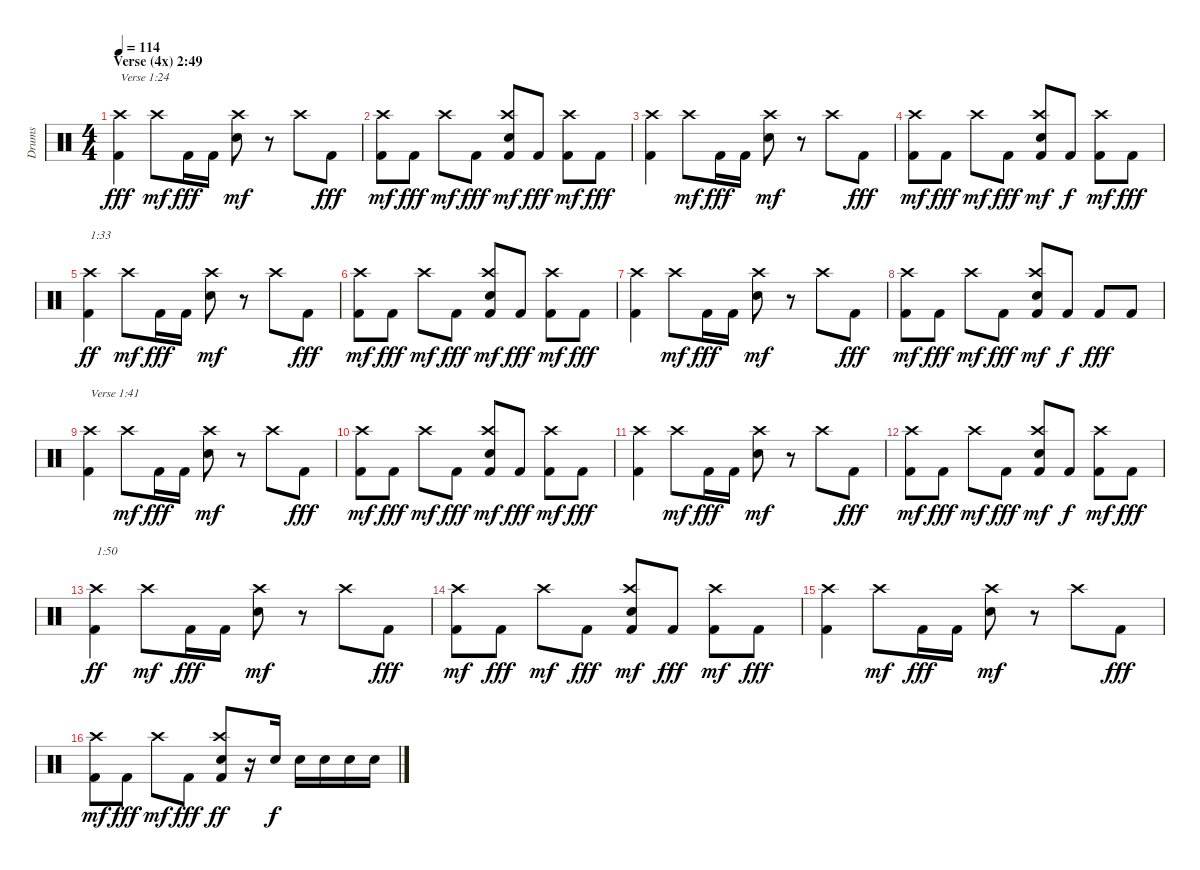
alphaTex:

\track ("Drums" "Drums") {instrument percussion}
\staff {score}
\articulation defaults
\ts (4 4)
\section ("" "Verse (4x) 2:49 ")
\tempo 114
\clef neutral
\ks c
("Kick (hit) 2" "Crash high (hit)").4{txt "Verse 1:24" dy fff} "Crash high (hit)".8{dy mf} "Kick (hit) 2".16{dy fff} "Kick (hit) 2".16 ("Electric Snare (hit)" "Crash high (hit)").8{dy mf} r.8 "Crash high (hit)".8 "Kick (hit) 2".8{dy fff} |
("Kick (hit) 2" "Crash high (hit)").8{dy mf} "Kick (hit) 2".8{dy fff} "Crash high (hit)".8{dy mf} "Kick (hit) 2".8{dy fff} ("Kick (hit) 2" "Electric Snare (hit)" "Crash high (hit)").8{dy mf} "Kick (hit) 2".8{dy fff} ("Kick (hit) 2" "Crash high (hit)").8{dy mf} "Kick (hit) 2".8{dy fff} |
("Kick (hit) 2" "Crash high (hit)").4 "Crash high (hit)".8{dy mf} "Kick (hit) 2".16{dy fff} "Kick (hit) 2".16 ("Electric Snare (hit)" "Crash high (hit)").8{dy mf} r.8 "Crash high (hit)".8 "Kick (hit) 2".8{dy fff} |
("Kick (hit) 2" "Crash high (hit)").8{dy mf} "Kick (hit) 2".8{dy fff} "Crash high (hit)".8{dy mf} "Kick (hit) 2".8{dy fff} ("Kick (hit) 2" "Electric Snare (hit)" "Crash high (hit)").8{dy mf} "Kick (hit) 2".8{dy f} ("Kick (hit) 2" "Crash high (hit)").8{dy mf} "Kick (hit) 2".8{dy fff} |
("Kick (hit) 2" "Crash high (hit)").4{txt "1:33" dy ff} "Crash high (hit)".8{dy mf} "Kick (hit) 2".16{dy fff} "Kick (hit) 2".16 ("Electric Snare (hit)" "Crash high (hit)").8{dy mf} r.8 "Crash high (hit)".8 "Kick (hit) 2".8{dy fff} |
("Kick (hit) 2" "Crash high (hit)").8{dy mf} "Kick (hit) 2".8{dy fff} "Crash high (hit)".8{dy mf} "Kick (hit) 2".8{dy fff} ("Kick (hit) 2" "Electric Snare (hit)" "Crash high (hit)").8{dy mf} "Kick (hit) 2".8{dy fff} ("Kick (hit) 2" "Crash high (hit)").8{dy mf} "Kick (hit) 2".8{dy fff} |
("Kick (hit) 2" "Crash high (hit)").4 "Crash high (hit)".8{dy mf} "Kick (hit) 2".16{dy fff} "Kick (hit) 2".16 ("Electric Snare (hit)" "Crash high (hit)").8{dy mf} r.8 "Crash high (hit)".8 "Kick (hit) 2".8{dy fff} |
("Kick (hit) 2" "Crash high (hit)").8{dy mf} "Kick (hit) 2".8{dy fff} "Crash high (hit)".8{dy mf} "Kick (hit) 2".8{dy fff} ("Kick (hit) 2" "Electric Snare (hit)" "Crash high (hit)").8{dy mf} "Kick (hit) 2".8{dy f} "Kick (hit) 2".8{dy fff} "Kick (hit) 2".8 |
("Kick (hit) 2" "Crash high (hit)").4{txt "Verse 1:41"} "Crash high (hit)".8{dy mf} "Kick (hit) 2".16{dy fff} "Kick (hit) 2".16 ("Electric Snare (hit)" "Crash high (hit)").8{dy mf} r.8 "Crash high (hit)".8 "Kick (hit) 2".8{dy fff} |
("Kick (hit) 2" "Crash high (hit)").8{dy mf} "Kick (hit) 2".8{dy fff} "Crash high (hit)".8{dy mf} "Kick (hit) 2".8{dy fff} ("Kick (hit) 2" "Electric Snare (hit)" "Crash high (hit)").8{dy mf} "Kick (hit) 2".8{dy fff} ("Kick (hit) 2" "Crash high (hit)").8{dy mf} "Kick (hit) 2".8{dy fff} |
("Kick (hit) 2" "Crash high (hit)").4 "Crash high (hit)".8{dy mf} "Kick (hit) 2".16{dy fff} "Kick (hit) 2".16 ("Electric Snare (hit)" "Crash high (hit)").8{dy mf} r.8 "Crash high (hit)".8 "Kick (hit) 2".8{dy fff} |
("Kick (hit) 2" "Crash high (hit)").8{dy mf} "Kick (hit) 2".8{dy fff} "Crash high (hit)".8{dy mf} "Kick (hit) 2".8{dy fff} ("Kick (hit) 2" "Electric Snare (hit)" "Crash high (hit)").8{dy mf} "Kick (hit) 2".8{dy f} ("Kick (hit) 2" "Crash high (hit)").8{dy mf} "Kick (hit) 2".8{dy fff} |
("Kick (hit) 2" "Crash high (hit)").4{txt "1:50" dy ff} "Crash high (hit)".8{dy mf} "Kick (hit) 2".16{dy fff} "Kick (hit) 2".16 ("Electric Snare (hit)" "Crash high (hit)").8{dy mf} r.8 "Crash high (hit)".8 "Kick (hit) 2".8{dy fff} |
("Kick (hit) 2" "Crash high (hit)").8{dy mf} "Kick (hit) 2".8{dy fff} "Crash high (hit)".8{dy mf} "Kick (hit) 2".8{dy fff} ("Kick (hit) 2" "Electric Snare (hit)" "Crash high (hit)").8{dy mf} "Kick (hit) 2".8{dy fff} ("Kick (hit) 2" "Crash high (hit)").8{dy mf} "Kick (hit) 2".8{dy fff} |
("Kick (hit) 2" "Crash high (hit)").4 "Crash high (hit)".8{dy mf} "Kick (hit) 2".16{dy fff} "Kick (hit) 2".16 ("Electric Snare (hit)" "Crash high (hit)").8{dy mf} r.8 "Crash high (hit)".8 "Kick (hit) 2".8{dy fff} |
("Kick (hit) 2" "Crash high (hit)").8{dy mf} "Kick (hit) 2".8{dy fff} "Crash high (hit)".8{dy mf} "Kick (hit) 2".8{dy fff} ("Kick (hit) 2" "Electric Snare (hit)" "Crash high (hit)").8{dy ff} r.16 "Electric Snare (hit)".16{dy f} "Electric Snare (hit)".16 "Electric Snare (hit)".16 "Electric Snare (hit)".16 "Electric Snare (hit)".16
